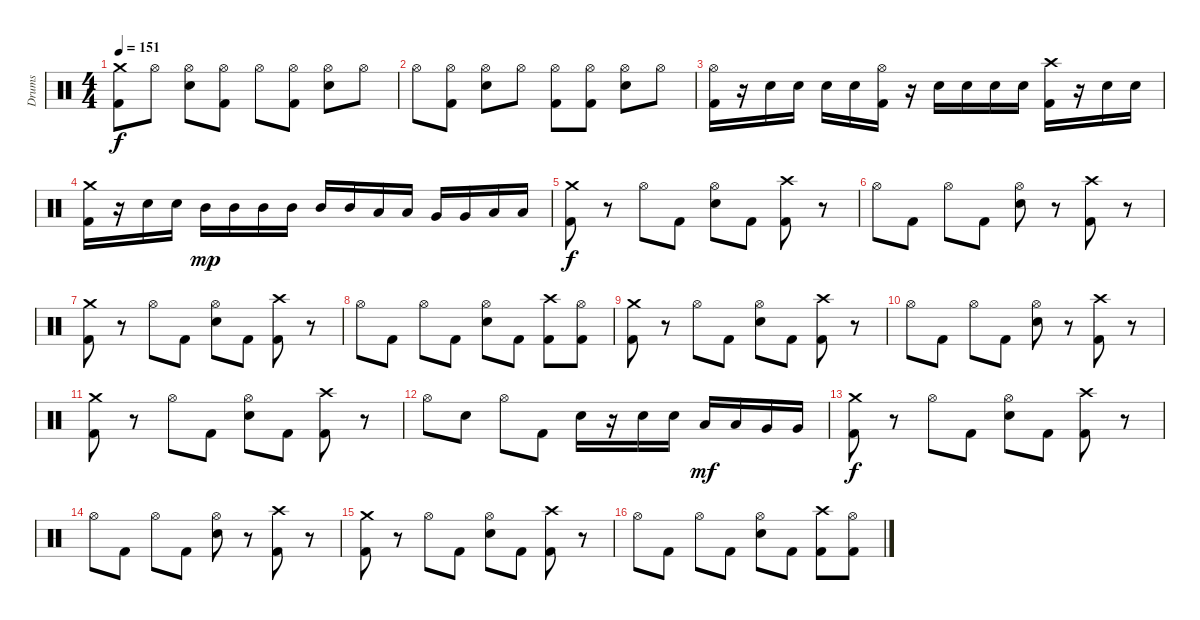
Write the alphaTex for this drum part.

\track ("Drums" "Drums") {instrument percussion}
\staff {score}
\articulation defaults
\ts (4 4)
\tempo 151
\clef neutral
\ks c
("Crash medium (hit)" "Kick (hit) 2").8{dy f} "Hi-Hat (open)".8 ("Hi-Hat (open)" "Snare (hit) 2").8 ("Hi-Hat (open)" "Kick (hit) 2").8 "Hi-Hat (open)".8 ("Hi-Hat (open)" "Kick (hit) 2").8 ("Hi-Hat (open)" "Snare (hit) 2").8 "Hi-Hat (open)".8 |
"Hi-Hat (open)".8 ("Hi-Hat (open)" "Kick (hit) 2").8 ("Hi-Hat (open)" "Snare (hit) 2").8 "Hi-Hat (open)".8 ("Hi-Hat (open)" "Kick (hit) 2").8 ("Hi-Hat (open)" "Kick (hit) 2").8 ("Hi-Hat (open)" "Snare (hit) 2").8 "Hi-Hat (open)".8 |
("Hi-Hat (open)" "Kick (hit) 2").16 r.16 "Snare (hit) 2".16 "Snare (hit) 2".16 "Snare (hit) 2".16 "Snare (hit) 2".16 ("Hi-Hat (open)" "Kick (hit) 2").16 r.16 "Snare (hit) 2".16 "Snare (hit) 2".16 "Snare (hit) 2".16 "Snare (hit) 2".16 ("Crash high (hit)" "Kick (hit) 2").16 r.16 "Snare (hit) 2".16 "Snare (hit) 2".16 |
("Crash medium (hit)" "Kick (hit) 2").16 r.16 "Snare (hit) 2".16 "Snare (hit) 2".16 "Mid Tom (hit)".16{dy mp} "Mid Tom (hit)".16 "Mid Tom (hit)".16 "Mid Tom (hit)".16 "Mid Tom (hit)".16 "Mid Tom (hit)".16 "Low Tom (hit)".16 "Low Tom (hit)".16 "Very Low Tom (hit)".16 "Very Low Tom (hit)".16 "Low Floor Tom (hit)".16 "Low Floor Tom (hit)".16 |
("Crash medium (hit)" "Kick (hit) 2").8{dy f} r.8 "Hi-Hat (open)".8 "Kick (hit) 2".8 ("Hi-Hat (open)" "Snare (hit) 2").8 "Kick (hit) 2".8 ("Crash high (hit)" "Kick (hit) 2").8 r.8 |
"Hi-Hat (open)".8 "Kick (hit) 2".8 "Hi-Hat (open)".8 "Kick (hit) 2".8 ("Hi-Hat (open)" "Snare (hit) 2").8 r.8 ("Crash high (hit)" "Kick (hit) 2").8 r.8 |
("Crash medium (hit)" "Kick (hit) 2").8 r.8 "Hi-Hat (open)".8 "Kick (hit) 2".8 ("Hi-Hat (open)" "Snare (hit) 2").8 "Kick (hit) 2".8 ("Crash high (hit)" "Kick (hit) 2").8 r.8 |
"Hi-Hat (open)".8 "Kick (hit) 2".8 "Hi-Hat (open)".8 "Kick (hit) 2".8 ("Hi-Hat (open)" "Snare (hit) 2").8 "Kick (hit) 2".8 ("Crash high (hit)" "Kick (hit) 2").8 ("Hi-Hat (open)" "Kick (hit) 2").8 |
("Crash medium (hit)" "Kick (hit) 2").8 r.8 "Hi-Hat (open)".8 "Kick (hit) 2".8 ("Hi-Hat (open)" "Snare (hit) 2").8 "Kick (hit) 2".8 ("Crash high (hit)" "Kick (hit) 2").8 r.8 |
"Hi-Hat (open)".8 "Kick (hit) 2".8 "Hi-Hat (open)".8 "Kick (hit) 2".8 ("Hi-Hat (open)" "Snare (hit) 2").8 r.8 ("Crash high (hit)" "Kick (hit) 2").8 r.8 |
("Crash medium (hit)" "Kick (hit) 2").8 r.8 "Hi-Hat (open)".8 "Kick (hit) 2".8 ("Hi-Hat (open)" "Snare (hit) 2").8 "Kick (hit) 2".8 ("Crash high (hit)" "Kick (hit) 2").8 r.8 |
"Hi-Hat (open)".8 "Snare (hit) 2".8 "Hi-Hat (open)".8 "Kick (hit) 2".8 "Snare (hit) 2".16 r.16 "Snare (hit) 2".16 "Snare (hit) 2".16 "Low Tom (hit)".16{dy mf} "Low Tom (hit)".16 "Very Low Tom (hit)".16 "Very Low Tom (hit)".16 |
("Crash medium (hit)" "Kick (hit) 2").8{dy f} r.8 "Hi-Hat (open)".8 "Kick (hit) 2".8 ("Hi-Hat (open)" "Snare (hit) 2").8 "Kick (hit) 2".8 ("Crash high (hit)" "Kick (hit) 2").8 r.8 |
"Hi-Hat (open)".8 "Kick (hit) 2".8 "Hi-Hat (open)".8 "Kick (hit) 2".8 ("Hi-Hat (open)" "Snare (hit) 2").8 r.8 ("Crash high (hit)" "Kick (hit) 2").8 r.8 |
("Crash medium (hit)" "Kick (hit) 2").8 r.8 "Hi-Hat (open)".8 "Kick (hit) 2".8 ("Hi-Hat (open)" "Snare (hit) 2").8 "Kick (hit) 2".8 ("Crash high (hit)" "Kick (hit) 2").8 r.8 |
"Hi-Hat (open)".8 "Kick (hit) 2".8 "Hi-Hat (open)".8 "Kick (hit) 2".8 ("Hi-Hat (open)" "Snare (hit) 2").8 "Kick (hit) 2".8 ("Crash high (hit)" "Kick (hit) 2").8 ("Hi-Hat (open)" "Kick (hit) 2").8
